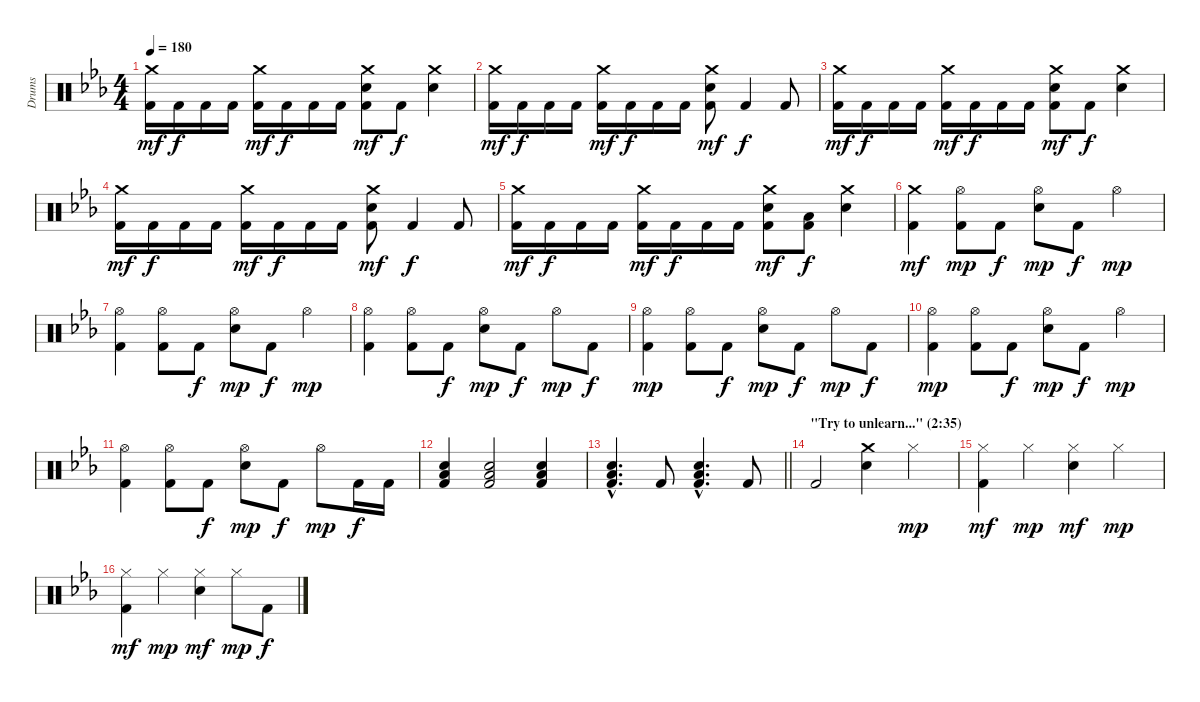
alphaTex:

\track ("Drums" "Drums") {instrument percussion}
\staff {score}
\articulation defaults
\ts (4 4)
\tempo 180
\clef neutral
\ks eb
("Crash medium (hit)" "Kick (hit) 2").16{dy mf} "Kick (hit) 2".16{dy f} "Kick (hit) 2".16 "Kick (hit) 2".16 ("Crash medium (hit)" "Kick (hit) 2").16{dy mf} "Kick (hit) 2".16{dy f} "Kick (hit) 2".16 "Kick (hit) 2".16 ("Crash medium (hit)" "Electric Snare (hit)" "Kick (hit) 2").8{dy mf} "Kick (hit) 2".8{dy f} ("Crash medium (hit)" "Electric Snare (hit)").4 |
("Crash medium (hit)" "Kick (hit) 2").16{dy mf} "Kick (hit) 2".16{dy f} "Kick (hit) 2".16 "Kick (hit) 2".16 ("Crash medium (hit)" "Kick (hit) 2").16{dy mf} "Kick (hit) 2".16{dy f} "Kick (hit) 2".16 "Kick (hit) 2".16 ("Crash medium (hit)" "Electric Snare (hit)" "Kick (hit) 2").8{dy mf} "Kick (hit) 2".4{dy f} "Kick (hit) 2".8 |
("Crash medium (hit)" "Kick (hit) 2").16{dy mf} "Kick (hit) 2".16{dy f} "Kick (hit) 2".16 "Kick (hit) 2".16 ("Crash medium (hit)" "Kick (hit) 2").16{dy mf} "Kick (hit) 2".16{dy f} "Kick (hit) 2".16 "Kick (hit) 2".16 ("Crash medium (hit)" "Electric Snare (hit)" "Kick (hit) 2").8{dy mf} "Kick (hit) 2".8{dy f} ("Crash medium (hit)" "Electric Snare (hit)").4 |
("Crash medium (hit)" "Kick (hit) 2").16{dy mf} "Kick (hit) 2".16{dy f} "Kick (hit) 2".16 "Kick (hit) 2".16 ("Crash medium (hit)" "Kick (hit) 2").16{dy mf} "Kick (hit) 2".16{dy f} "Kick (hit) 2".16 "Kick (hit) 2".16 ("Crash medium (hit)" "Electric Snare (hit)" "Kick (hit) 2").8{dy mf} "Kick (hit) 2".4{dy f} "Kick (hit) 2".8 |
("Crash medium (hit)" "Kick (hit) 2").16{dy mf} "Kick (hit) 2".16{dy f} "Kick (hit) 2".16 "Kick (hit) 2".16 ("Crash medium (hit)" "Kick (hit) 2").16{dy mf} "Kick (hit) 2".16{dy f} "Kick (hit) 2".16 "Kick (hit) 2".16 ("Crash medium (hit)" "Electric Snare (hit)" "Kick (hit) 2").8{dy mf} ("Low Floor Tom (hit)" "Kick (hit) 2").8{dy f} ("Crash medium (hit)" "Electric Snare (hit)").4 |
("Crash medium (hit)" "Kick (hit) 2").4{dy mf} ("Hi-Hat (open)" "Kick (hit) 2").8{dy mp} "Kick (hit) 2".8{dy f} ("Hi-Hat (open)" "Electric Snare (hit)").8{dy mp} "Kick (hit) 2".8{dy f} "Hi-Hat (open)".4{dy mp} |
("Hi-Hat (open)" "Kick (hit) 2").4 ("Hi-Hat (open)" "Kick (hit) 2").8 "Kick (hit) 2".8{dy f} ("Hi-Hat (open)" "Electric Snare (hit)").8{dy mp} "Kick (hit) 2".8{dy f} "Hi-Hat (open)".4{dy mp} |
("Hi-Hat (open)" "Kick (hit) 2").4 ("Hi-Hat (open)" "Kick (hit) 2").8 "Kick (hit) 2".8{dy f} ("Hi-Hat (open)" "Electric Snare (hit)").8{dy mp} "Kick (hit) 2".8{dy f} "Hi-Hat (open)".8{dy mp} "Kick (hit) 2".8{dy f} |
("Hi-Hat (open)" "Kick (hit) 2").4{dy mp} ("Hi-Hat (open)" "Kick (hit) 2").8 "Kick (hit) 2".8{dy f} ("Hi-Hat (open)" "Electric Snare (hit)").8{dy mp} "Kick (hit) 2".8{dy f} "Hi-Hat (open)".8{dy mp} "Kick (hit) 2".8{dy f} |
("Hi-Hat (open)" "Kick (hit) 2").4{dy mp} ("Hi-Hat (open)" "Kick (hit) 2").8 "Kick (hit) 2".8{dy f} ("Hi-Hat (open)" "Electric Snare (hit)").8{dy mp} "Kick (hit) 2".8{dy f} "Hi-Hat (open)".4{dy mp} |
("Hi-Hat (open)" "Kick (hit) 2").4 ("Hi-Hat (open)" "Kick (hit) 2").8 "Kick (hit) 2".8{dy f} ("Hi-Hat (open)" "Electric Snare (hit)").8{dy mp} "Kick (hit) 2".8{dy f} "Hi-Hat (open)".8{dy mp} "Kick (hit) 2".16{dy f} "Kick (hit) 2".16 |
("Low Floor Tom (hit)" "Electric Snare (hit)" "Kick (hit) 2").4 ("Low Floor Tom (hit)" "Electric Snare (hit)" "Kick (hit) 2").2 ("Low Floor Tom (hit)" "Electric Snare (hit)" "Kick (hit) 2").4 |
\barLineRight lightlight
("Low Floor Tom (hit)"{hac} "Electric Snare (hit)"{hac} "Kick (hit) 2"{hac}).4{d} "Kick (hit) 2".8 ("Low Floor Tom (hit)"{hac} "Electric Snare (hit)"{hac} "Kick (hit) 2"{hac}).4{d} "Kick (hit) 2".8 |
\section ("" "\"Try to unlearn...\" (2:35)")
"Kick (hit) 2".2 ("Crash medium (hit)" "Electric Snare (hit)").4 "Hi-Hat (closed)".4{dy mp} |
("Hi-Hat (closed)" "Kick (hit) 2").4{dy mf} "Hi-Hat (closed)".4{dy mp} ("Hi-Hat (closed)" "Electric Snare (hit)").4{dy mf} "Hi-Hat (closed)".4{dy mp} |
("Hi-Hat (closed)" "Kick (hit) 2").4{dy mf} "Hi-Hat (closed)".4{dy mp} ("Hi-Hat (closed)" "Electric Snare (hit)").4{dy mf} "Hi-Hat (closed)".8{dy mp} "Kick (hit) 2".8{dy f}
